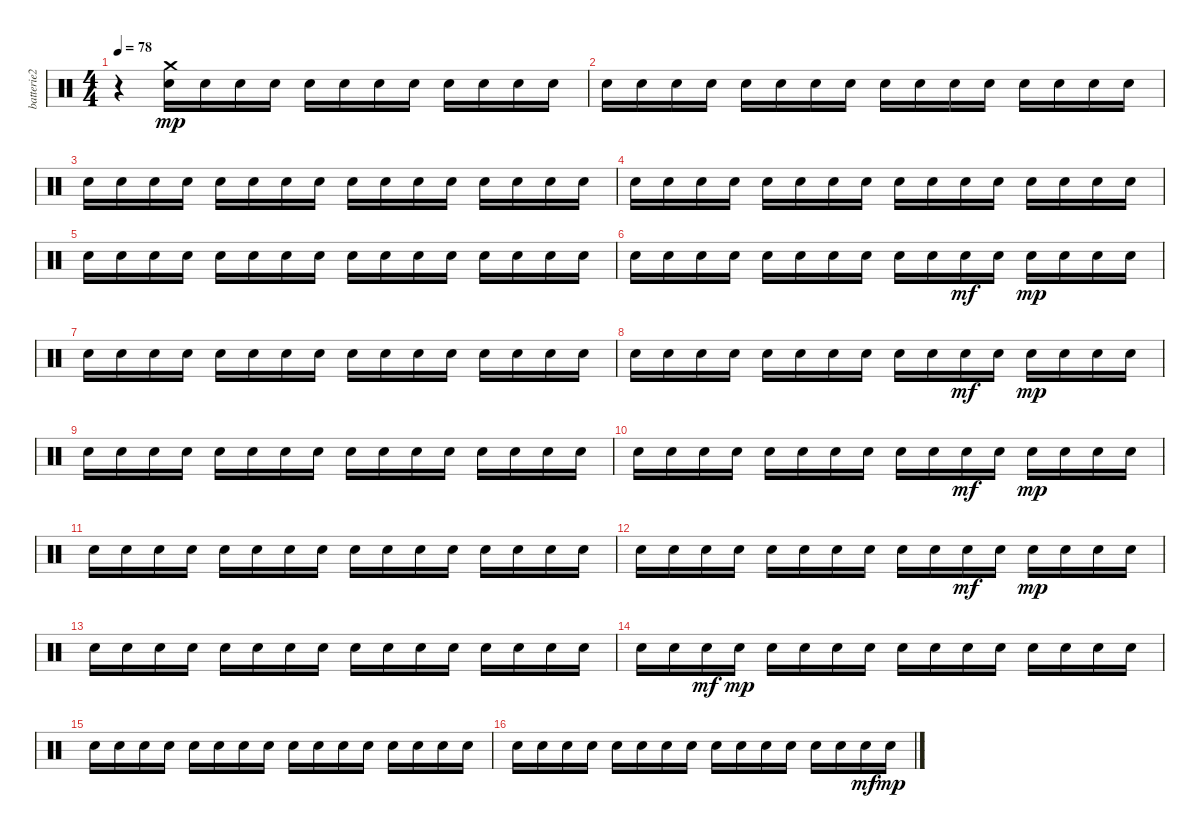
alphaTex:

\track ("batterie2" "batterie2") {instrument percussion}
\staff {score}
\articulation defaults
\ts (4 4)
\tempo 78
\clef neutral
\ks c
r.4{dy mp} ("Snare (hit) 2" "Crash medium (hit)").16 "Snare (hit) 2".16 "Snare (hit) 2".16 "Snare (hit) 2".16 "Snare (hit) 2".16 "Snare (hit) 2".16 "Snare (hit) 2".16 "Snare (hit) 2".16 "Snare (hit) 2".16 "Snare (hit) 2".16 "Snare (hit) 2".16 "Snare (hit) 2".16 |
"Snare (hit) 2".16 "Snare (hit) 2".16 "Snare (hit) 2".16 "Snare (hit) 2".16 "Snare (hit) 2".16 "Snare (hit) 2".16 "Snare (hit) 2".16 "Snare (hit) 2".16 "Snare (hit) 2".16 "Snare (hit) 2".16 "Snare (hit) 2".16 "Snare (hit) 2".16 "Snare (hit) 2".16 "Snare (hit) 2".16 "Snare (hit) 2".16 "Snare (hit) 2".16 |
"Snare (hit) 2".16 "Snare (hit) 2".16 "Snare (hit) 2".16 "Snare (hit) 2".16 "Snare (hit) 2".16 "Snare (hit) 2".16 "Snare (hit) 2".16 "Snare (hit) 2".16 "Snare (hit) 2".16 "Snare (hit) 2".16 "Snare (hit) 2".16 "Snare (hit) 2".16 "Snare (hit) 2".16 "Snare (hit) 2".16 "Snare (hit) 2".16 "Snare (hit) 2".16 |
"Snare (hit) 2".16 "Snare (hit) 2".16 "Snare (hit) 2".16 "Snare (hit) 2".16 "Snare (hit) 2".16 "Snare (hit) 2".16 "Snare (hit) 2".16 "Snare (hit) 2".16 "Snare (hit) 2".16 "Snare (hit) 2".16 "Snare (hit) 2".16 "Snare (hit) 2".16 "Snare (hit) 2".16 "Snare (hit) 2".16 "Snare (hit) 2".16 "Snare (hit) 2".16 |
"Snare (hit) 2".16 "Snare (hit) 2".16 "Snare (hit) 2".16 "Snare (hit) 2".16 "Snare (hit) 2".16 "Snare (hit) 2".16 "Snare (hit) 2".16 "Snare (hit) 2".16 "Snare (hit) 2".16 "Snare (hit) 2".16 "Snare (hit) 2".16 "Snare (hit) 2".16 "Snare (hit) 2".16 "Snare (hit) 2".16 "Snare (hit) 2".16 "Snare (hit) 2".16 |
"Snare (hit) 2".16 "Snare (hit) 2".16 "Snare (hit) 2".16 "Snare (hit) 2".16 "Snare (hit) 2".16 "Snare (hit) 2".16 "Snare (hit) 2".16 "Snare (hit) 2".16 "Snare (hit) 2".16 "Snare (hit) 2".16 "Snare (hit) 2".16{dy mf} "Snare (hit) 2".16 "Snare (hit) 2".16{dy mp} "Snare (hit) 2".16 "Snare (hit) 2".16 "Snare (hit) 2".16 |
"Snare (hit) 2".16 "Snare (hit) 2".16 "Snare (hit) 2".16 "Snare (hit) 2".16 "Snare (hit) 2".16 "Snare (hit) 2".16 "Snare (hit) 2".16 "Snare (hit) 2".16 "Snare (hit) 2".16 "Snare (hit) 2".16 "Snare (hit) 2".16 "Snare (hit) 2".16 "Snare (hit) 2".16 "Snare (hit) 2".16 "Snare (hit) 2".16 "Snare (hit) 2".16 |
"Snare (hit) 2".16 "Snare (hit) 2".16 "Snare (hit) 2".16 "Snare (hit) 2".16 "Snare (hit) 2".16 "Snare (hit) 2".16 "Snare (hit) 2".16 "Snare (hit) 2".16 "Snare (hit) 2".16 "Snare (hit) 2".16 "Snare (hit) 2".16{dy mf} "Snare (hit) 2".16 "Snare (hit) 2".16{dy mp} "Snare (hit) 2".16 "Snare (hit) 2".16 "Snare (hit) 2".16 |
"Snare (hit) 2".16 "Snare (hit) 2".16 "Snare (hit) 2".16 "Snare (hit) 2".16 "Snare (hit) 2".16 "Snare (hit) 2".16 "Snare (hit) 2".16 "Snare (hit) 2".16 "Snare (hit) 2".16 "Snare (hit) 2".16 "Snare (hit) 2".16 "Snare (hit) 2".16 "Snare (hit) 2".16 "Snare (hit) 2".16 "Snare (hit) 2".16 "Snare (hit) 2".16 |
"Snare (hit) 2".16 "Snare (hit) 2".16 "Snare (hit) 2".16 "Snare (hit) 2".16 "Snare (hit) 2".16 "Snare (hit) 2".16 "Snare (hit) 2".16 "Snare (hit) 2".16 "Snare (hit) 2".16 "Snare (hit) 2".16 "Snare (hit) 2".16{dy mf} "Snare (hit) 2".16 "Snare (hit) 2".16{dy mp} "Snare (hit) 2".16 "Snare (hit) 2".16 "Snare (hit) 2".16 |
"Snare (hit) 2".16 "Snare (hit) 2".16 "Snare (hit) 2".16 "Snare (hit) 2".16 "Snare (hit) 2".16 "Snare (hit) 2".16 "Snare (hit) 2".16 "Snare (hit) 2".16 "Snare (hit) 2".16 "Snare (hit) 2".16 "Snare (hit) 2".16 "Snare (hit) 2".16 "Snare (hit) 2".16 "Snare (hit) 2".16 "Snare (hit) 2".16 "Snare (hit) 2".16 |
"Snare (hit) 2".16 "Snare (hit) 2".16 "Snare (hit) 2".16 "Snare (hit) 2".16 "Snare (hit) 2".16 "Snare (hit) 2".16 "Snare (hit) 2".16 "Snare (hit) 2".16 "Snare (hit) 2".16 "Snare (hit) 2".16 "Snare (hit) 2".16{dy mf} "Snare (hit) 2".16 "Snare (hit) 2".16{dy mp} "Snare (hit) 2".16 "Snare (hit) 2".16 "Snare (hit) 2".16 |
"Snare (hit) 2".16 "Snare (hit) 2".16 "Snare (hit) 2".16 "Snare (hit) 2".16 "Snare (hit) 2".16 "Snare (hit) 2".16 "Snare (hit) 2".16 "Snare (hit) 2".16 "Snare (hit) 2".16 "Snare (hit) 2".16 "Snare (hit) 2".16 "Snare (hit) 2".16 "Snare (hit) 2".16 "Snare (hit) 2".16 "Snare (hit) 2".16 "Snare (hit) 2".16 |
"Snare (hit) 2".16 "Snare (hit) 2".16 "Snare (hit) 2".16{dy mf} "Snare (hit) 2".16{dy mp} "Snare (hit) 2".16 "Snare (hit) 2".16 "Snare (hit) 2".16 "Snare (hit) 2".16 "Snare (hit) 2".16 "Snare (hit) 2".16 "Snare (hit) 2".16 "Snare (hit) 2".16 "Snare (hit) 2".16 "Snare (hit) 2".16 "Snare (hit) 2".16 "Snare (hit) 2".16 |
"Snare (hit) 2".16 "Snare (hit) 2".16 "Snare (hit) 2".16 "Snare (hit) 2".16 "Snare (hit) 2".16 "Snare (hit) 2".16 "Snare (hit) 2".16 "Snare (hit) 2".16 "Snare (hit) 2".16 "Snare (hit) 2".16 "Snare (hit) 2".16 "Snare (hit) 2".16 "Snare (hit) 2".16 "Snare (hit) 2".16 "Snare (hit) 2".16 "Snare (hit) 2".16 |
"Snare (hit) 2".16 "Snare (hit) 2".16 "Snare (hit) 2".16 "Snare (hit) 2".16 "Snare (hit) 2".16 "Snare (hit) 2".16 "Snare (hit) 2".16 "Snare (hit) 2".16 "Snare (hit) 2".16 "Snare (hit) 2".16 "Snare (hit) 2".16 "Snare (hit) 2".16 "Snare (hit) 2".16 "Snare (hit) 2".16 "Snare (hit) 2".16{dy mf} "Snare (hit) 2".16{dy mp}
